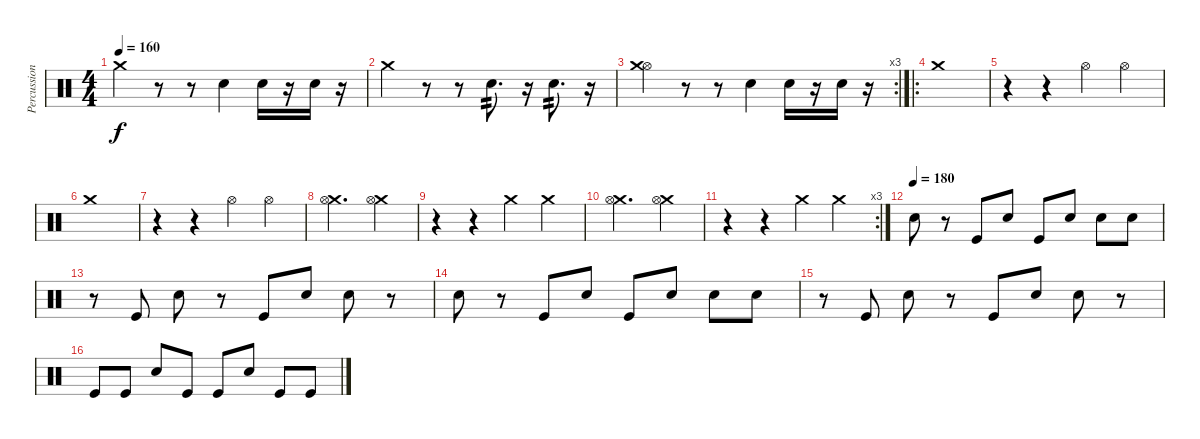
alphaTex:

\track ("Percussion" "Percussion") {instrument percussion}
\staff {score}
\articulation defaults
\ts (4 4)
\tempo 160
\clef neutral
\ks c "Crash medium (hit)".4{dy f}
r.8 r.8 "Snare (hit) 2".4 "Snare (hit) 2".16 r.16 "Snare (hit) 2".16 r.16 |
"Crash medium (hit)".4 r.8 r.8 "Snare (hit) 2".8{d tp 2} r.16 "Snare (hit) 2".8{d tp 2} r.16 |
\rc 3
("Hi-Hat (open)" "Crash medium (hit)").4 r.8 r.8 "Snare (hit) 2".4 "Snare (hit) 2".16 r.16 "Snare (hit) 2".16 r.16 |
\ro "Crash medium (hit)".1
|
r.4 r.4 "Hi-Hat (open)".4 "Hi-Hat (open)".4 |
"Crash medium (hit)".1 |
r.4 r.4 "Hi-Hat (open)".4 "Hi-Hat (open)".4 |
("Crash medium (hit)" "Hi-Hat (open)").2{d} ("Crash medium (hit)" "Hi-Hat (open)").4 |
r.4 r.4 "Crash medium (hit)".4 "Crash medium (hit)".4 |
("Crash medium (hit)" "Hi-Hat (open)").2{d} ("Crash medium (hit)" "Hi-Hat (open)").4 |
\rc 3
r.4 r.4 "Crash medium (hit)".4 "Crash medium (hit)".4 |
\tempo (180)
"Snare (hit) 2".8 r.8 "Kick (hit)".8 "Snare (hit) 2".8 "Kick (hit)".8 "Snare (hit) 2".8 "Snare (hit) 2".8 "Snare (hit) 2".8 |
r.8 "Kick (hit)".8 "Snare (hit) 2".8 r.8 "Kick (hit)".8 "Snare (hit) 2".8 "Snare (hit) 2".8 r.8 |
"Snare (hit) 2".8 r.8 "Kick (hit)".8 "Snare (hit) 2".8 "Kick (hit)".8 "Snare (hit) 2".8 "Snare (hit) 2".8 "Snare (hit) 2".8 |
r.8 "Kick (hit)".8 "Snare (hit) 2".8 r.8 "Kick (hit)".8 "Snare (hit) 2".8 "Snare (hit) 2".8 r.8 |
"Kick (hit)".8 "Kick (hit)".8 "Snare (hit) 2".8 "Kick (hit)".8 "Kick (hit)".8 "Snare (hit) 2".8 "Kick (hit)".8 "Kick (hit)".8
